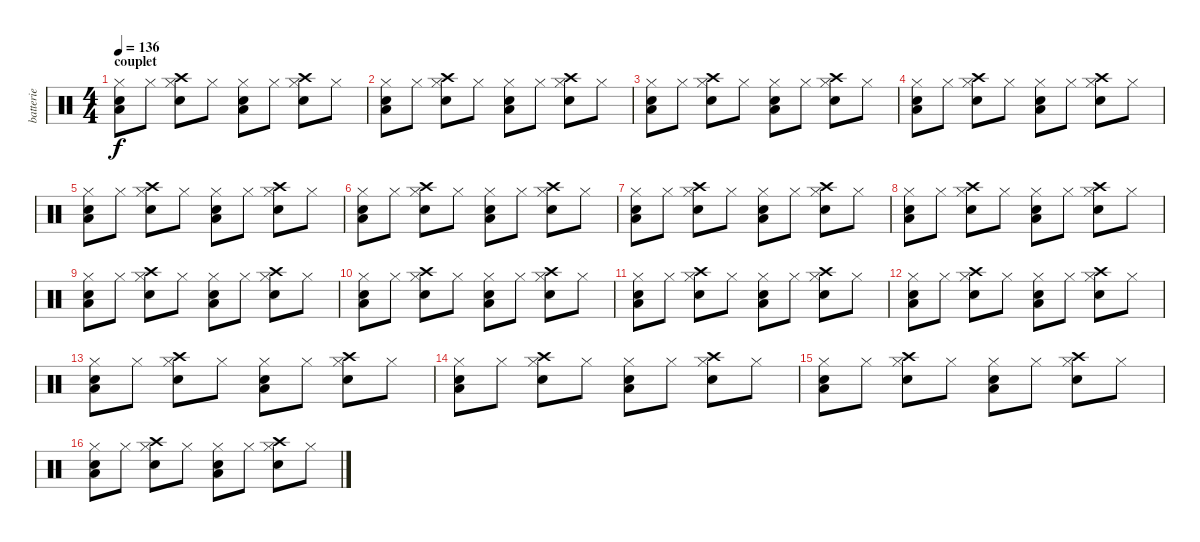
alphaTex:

\track ("batterie" "batterie") {instrument percussion}
\staff {score}
\articulation defaults
\ts (4 4)
\section ("" "couplet")
\tempo 136
\clef neutral
\ks c
("Hi-Hat (closed)" "Snare (hit) 2" "Low Floor Tom (hit)").8{dy f} "Hi-Hat (closed)".8 ("Hi-Hat (closed)" "Crash high (hit)" "Electric Snare (hit)").8 "Hi-Hat (closed)".8 ("Hi-Hat (closed)" "Snare (hit) 2" "Low Floor Tom (hit)").8 "Hi-Hat (closed)".8 ("Hi-Hat (closed)" "Crash high (hit)" "Electric Snare (hit)").8 "Hi-Hat (closed)".8 |
("Hi-Hat (closed)" "Snare (hit) 2" "Low Floor Tom (hit)").8 "Hi-Hat (closed)".8 ("Hi-Hat (closed)" "Crash high (hit)" "Electric Snare (hit)").8 "Hi-Hat (closed)".8 ("Hi-Hat (closed)" "Snare (hit) 2" "Low Floor Tom (hit)").8 "Hi-Hat (closed)".8 ("Hi-Hat (closed)" "Crash high (hit)" "Electric Snare (hit)").8 "Hi-Hat (closed)".8 |
("Hi-Hat (closed)" "Snare (hit) 2" "Low Floor Tom (hit)").8 "Hi-Hat (closed)".8 ("Hi-Hat (closed)" "Crash high (hit)" "Electric Snare (hit)").8 "Hi-Hat (closed)".8 ("Hi-Hat (closed)" "Snare (hit) 2" "Low Floor Tom (hit)").8 "Hi-Hat (closed)".8 ("Hi-Hat (closed)" "Crash high (hit)" "Electric Snare (hit)").8 "Hi-Hat (closed)".8 |
("Hi-Hat (closed)" "Snare (hit) 2" "Low Floor Tom (hit)").8 "Hi-Hat (closed)".8 ("Hi-Hat (closed)" "Crash high (hit)" "Electric Snare (hit)").8 "Hi-Hat (closed)".8 ("Hi-Hat (closed)" "Snare (hit) 2" "Low Floor Tom (hit)").8 "Hi-Hat (closed)".8 ("Hi-Hat (closed)" "Crash high (hit)" "Electric Snare (hit)").8 "Hi-Hat (closed)".8 |
("Hi-Hat (closed)" "Snare (hit) 2" "Low Floor Tom (hit)").8 "Hi-Hat (closed)".8 ("Hi-Hat (closed)" "Crash high (hit)" "Electric Snare (hit)").8 "Hi-Hat (closed)".8 ("Hi-Hat (closed)" "Snare (hit) 2" "Low Floor Tom (hit)").8 "Hi-Hat (closed)".8 ("Hi-Hat (closed)" "Crash high (hit)" "Electric Snare (hit)").8 "Hi-Hat (closed)".8 |
("Hi-Hat (closed)" "Snare (hit) 2" "Low Floor Tom (hit)").8 "Hi-Hat (closed)".8 ("Hi-Hat (closed)" "Crash high (hit)" "Electric Snare (hit)").8 "Hi-Hat (closed)".8 ("Hi-Hat (closed)" "Snare (hit) 2" "Low Floor Tom (hit)").8 "Hi-Hat (closed)".8 ("Hi-Hat (closed)" "Crash high (hit)" "Electric Snare (hit)").8 "Hi-Hat (closed)".8 |
("Hi-Hat (closed)" "Snare (hit) 2" "Low Floor Tom (hit)").8 "Hi-Hat (closed)".8 ("Hi-Hat (closed)" "Crash high (hit)" "Electric Snare (hit)").8 "Hi-Hat (closed)".8 ("Hi-Hat (closed)" "Snare (hit) 2" "Low Floor Tom (hit)").8 "Hi-Hat (closed)".8 ("Hi-Hat (closed)" "Crash high (hit)" "Electric Snare (hit)").8 "Hi-Hat (closed)".8 |
("Hi-Hat (closed)" "Snare (hit) 2" "Low Floor Tom (hit)").8 "Hi-Hat (closed)".8 ("Hi-Hat (closed)" "Crash high (hit)" "Electric Snare (hit)").8 "Hi-Hat (closed)".8 ("Hi-Hat (closed)" "Snare (hit) 2" "Low Floor Tom (hit)").8 "Hi-Hat (closed)".8 ("Hi-Hat (closed)" "Crash high (hit)" "Electric Snare (hit)").8 "Hi-Hat (closed)".8 |
("Hi-Hat (closed)" "Snare (hit) 2" "Low Floor Tom (hit)").8 "Hi-Hat (closed)".8 ("Hi-Hat (closed)" "Crash high (hit)" "Electric Snare (hit)").8 "Hi-Hat (closed)".8 ("Hi-Hat (closed)" "Snare (hit) 2" "Low Floor Tom (hit)").8 "Hi-Hat (closed)".8 ("Hi-Hat (closed)" "Crash high (hit)" "Electric Snare (hit)").8 "Hi-Hat (closed)".8 |
("Hi-Hat (closed)" "Snare (hit) 2" "Low Floor Tom (hit)").8 "Hi-Hat (closed)".8 ("Hi-Hat (closed)" "Crash high (hit)" "Electric Snare (hit)").8 "Hi-Hat (closed)".8 ("Hi-Hat (closed)" "Snare (hit) 2" "Low Floor Tom (hit)").8 "Hi-Hat (closed)".8 ("Hi-Hat (closed)" "Crash high (hit)" "Electric Snare (hit)").8 "Hi-Hat (closed)".8 |
("Hi-Hat (closed)" "Snare (hit) 2" "Low Floor Tom (hit)").8 "Hi-Hat (closed)".8 ("Hi-Hat (closed)" "Crash high (hit)" "Electric Snare (hit)").8 "Hi-Hat (closed)".8 ("Hi-Hat (closed)" "Snare (hit) 2" "Low Floor Tom (hit)").8 "Hi-Hat (closed)".8 ("Hi-Hat (closed)" "Crash high (hit)" "Electric Snare (hit)").8 "Hi-Hat (closed)".8 |
("Hi-Hat (closed)" "Snare (hit) 2" "Low Floor Tom (hit)").8 "Hi-Hat (closed)".8 ("Hi-Hat (closed)" "Crash high (hit)" "Electric Snare (hit)").8 "Hi-Hat (closed)".8 ("Hi-Hat (closed)" "Snare (hit) 2" "Low Floor Tom (hit)").8 "Hi-Hat (closed)".8 ("Hi-Hat (closed)" "Crash high (hit)" "Electric Snare (hit)").8 "Hi-Hat (closed)".8 |
("Hi-Hat (closed)" "Snare (hit) 2" "Low Floor Tom (hit)").8 "Hi-Hat (closed)".8 ("Hi-Hat (closed)" "Crash high (hit)" "Electric Snare (hit)").8 "Hi-Hat (closed)".8 ("Hi-Hat (closed)" "Snare (hit) 2" "Low Floor Tom (hit)").8 "Hi-Hat (closed)".8 ("Hi-Hat (closed)" "Crash high (hit)" "Electric Snare (hit)").8 "Hi-Hat (closed)".8 |
("Hi-Hat (closed)" "Snare (hit) 2" "Low Floor Tom (hit)").8 "Hi-Hat (closed)".8 ("Hi-Hat (closed)" "Crash high (hit)" "Electric Snare (hit)").8 "Hi-Hat (closed)".8 ("Hi-Hat (closed)" "Snare (hit) 2" "Low Floor Tom (hit)").8 "Hi-Hat (closed)".8 ("Hi-Hat (closed)" "Crash high (hit)" "Electric Snare (hit)").8 "Hi-Hat (closed)".8 |
("Hi-Hat (closed)" "Snare (hit) 2" "Low Floor Tom (hit)").8 "Hi-Hat (closed)".8 ("Hi-Hat (closed)" "Crash high (hit)" "Electric Snare (hit)").8 "Hi-Hat (closed)".8 ("Hi-Hat (closed)" "Snare (hit) 2" "Low Floor Tom (hit)").8 "Hi-Hat (closed)".8 ("Hi-Hat (closed)" "Crash high (hit)" "Electric Snare (hit)").8 "Hi-Hat (closed)".8 |
("Hi-Hat (closed)" "Snare (hit) 2" "Low Floor Tom (hit)").8 "Hi-Hat (closed)".8 ("Hi-Hat (closed)" "Crash high (hit)" "Electric Snare (hit)").8 "Hi-Hat (closed)".8 ("Hi-Hat (closed)" "Snare (hit) 2" "Low Floor Tom (hit)").8 "Hi-Hat (closed)".8 ("Hi-Hat (closed)" "Crash high (hit)" "Electric Snare (hit)").8 "Hi-Hat (closed)".8
